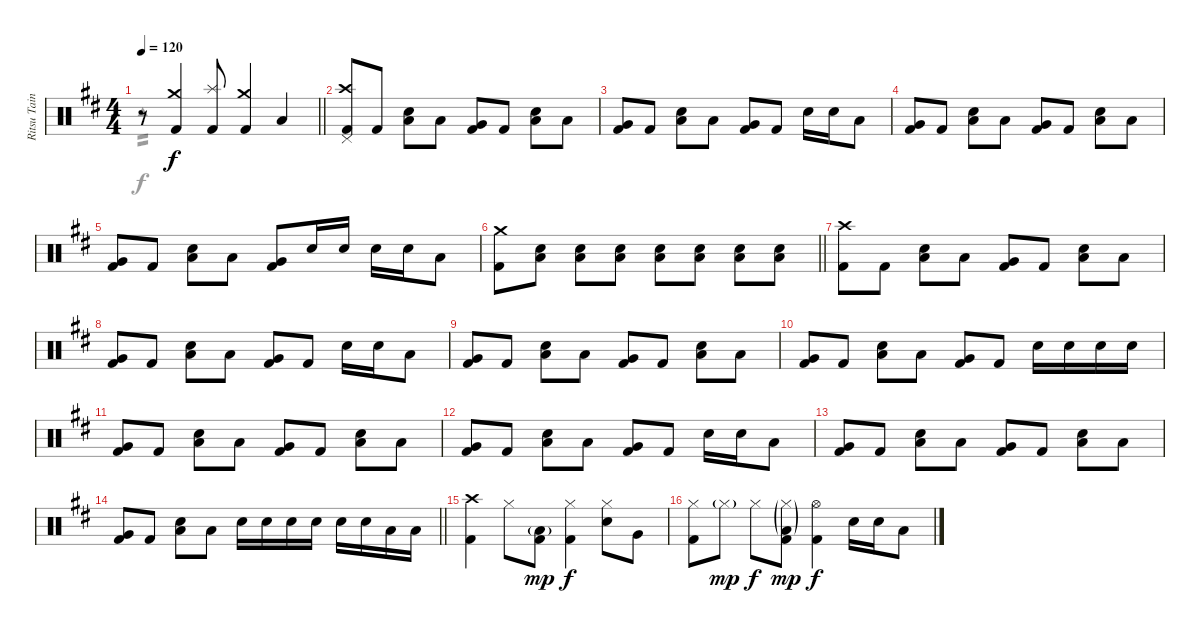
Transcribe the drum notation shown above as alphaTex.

\track ("Ritsu Tainaka" "Ritsu Tain") {instrument percussion}
\staff {score}
\articulation defaults
\voice
\ts (4 4)
\tempo 120
\clef neutral
\barLineRight lightlight
\ks d
r.8{dy f} ("Crash medium (hit)" "Kick (hit) 2").4 ("Splash (hit)" "Kick (hit) 2").8 ("Crash medium (hit)" "Kick (hit) 2").4 "Low Floor Tom (hit)".4 |
("Crash high (hit)" "Pedal Hi-Hat (hit)" "Kick (hit) 2").8 "Kick (hit) 2".8 ("Snare (hit) 2" "Low Floor Tom (hit)").8 "Low Tom (hit)".8 ("Very Low Tom (hit)" "Kick (hit) 2").8 "Kick (hit) 2".8 ("Snare (hit) 2" "Low Floor Tom (hit)").8 "Low Tom (hit)".8 |
("Very Low Tom (hit)" "Kick (hit) 2").8 "Kick (hit) 2".8 ("Snare (hit) 2" "Low Floor Tom (hit)").8 "Low Tom (hit)".8 ("Very Low Tom (hit)" "Kick (hit) 2").8 "Kick (hit) 2".8 "Snare (hit) 2".16 "Snare (hit) 2".16 "Low Tom (hit)".8 |
("Very Low Tom (hit)" "Kick (hit) 2").8 "Kick (hit) 2".8 ("Snare (hit) 2" "Low Floor Tom (hit)").8 "Low Tom (hit)".8 ("Very Low Tom (hit)" "Kick (hit) 2").8 "Kick (hit) 2".8 ("Snare (hit) 2" "Low Floor Tom (hit)").8 "Low Tom (hit)".8 |
("Very Low Tom (hit)" "Kick (hit) 2").8 "Kick (hit) 2".8 ("Snare (hit) 2" "Low Floor Tom (hit)").8 "Low Tom (hit)".8 ("Very Low Tom (hit)" "Kick (hit) 2").8 "Snare (hit) 2".16 "Snare (hit) 2".16 "Snare (hit) 2".16 "Snare (hit) 2".16 "Low Tom (hit)".8 |
\barLineRight lightlight
("Crash medium (hit)" "Kick (hit) 2").8 ("Snare (hit) 2" "Low Floor Tom (hit)").8 ("Snare (hit) 2" "Low Floor Tom (hit)").8 ("Snare (hit) 2" "Low Floor Tom (hit)").8 ("Snare (hit) 2" "Low Floor Tom (hit)").8 ("Snare (hit) 2" "Low Floor Tom (hit)").8 ("Snare (hit) 2" "Low Floor Tom (hit)").8 ("Snare (hit) 2" "Low Floor Tom (hit)").8 |
("Crash high (hit)" "Kick (hit) 2").8 "Kick (hit) 2".8 ("Snare (hit) 2" "Low Floor Tom (hit)").8 "Low Tom (hit)".8 ("Very Low Tom (hit)" "Kick (hit) 2").8 "Kick (hit) 2".8 ("Snare (hit) 2" "Low Floor Tom (hit)").8 "Low Tom (hit)".8 |
("Very Low Tom (hit)" "Kick (hit) 2").8 "Kick (hit) 2".8 ("Snare (hit) 2" "Low Floor Tom (hit)").8 "Low Tom (hit)".8 ("Very Low Tom (hit)" "Kick (hit) 2").8 "Kick (hit) 2".8 "Snare (hit) 2".16 "Snare (hit) 2".16 "Low Tom (hit)".8 |
("Very Low Tom (hit)" "Kick (hit) 2").8 "Kick (hit) 2".8 ("Snare (hit) 2" "Low Floor Tom (hit)").8 "Low Tom (hit)".8 ("Very Low Tom (hit)" "Kick (hit) 2").8 "Kick (hit) 2".8 ("Snare (hit) 2" "Low Floor Tom (hit)").8 "Low Tom (hit)".8 |
("Very Low Tom (hit)" "Kick (hit) 2").8 "Kick (hit) 2".8 ("Snare (hit) 2" "Low Floor Tom (hit)").8 "Low Tom (hit)".8 ("Very Low Tom (hit)" "Kick (hit) 2").8 "Kick (hit) 2".8 "Snare (hit) 2".16 "Snare (hit) 2".16 "Snare (hit) 2".16 "Snare (hit) 2".16 |
("Very Low Tom (hit)" "Kick (hit) 2").8 "Kick (hit) 2".8 ("Snare (hit) 2" "Low Floor Tom (hit)").8 "Low Tom (hit)".8 ("Very Low Tom (hit)" "Kick (hit) 2").8 "Kick (hit) 2".8 ("Snare (hit) 2" "Low Floor Tom (hit)").8 "Low Tom (hit)".8 |
("Very Low Tom (hit)" "Kick (hit) 2").8 "Kick (hit) 2".8 ("Snare (hit) 2" "Low Floor Tom (hit)").8 "Low Tom (hit)".8 ("Very Low Tom (hit)" "Kick (hit) 2").8 "Kick (hit) 2".8 "Snare (hit) 2".16 "Snare (hit) 2".16 "Low Tom (hit)".8 |
("Very Low Tom (hit)" "Kick (hit) 2").8 "Kick (hit) 2".8 ("Snare (hit) 2" "Low Floor Tom (hit)").8 "Low Tom (hit)".8 ("Very Low Tom (hit)" "Kick (hit) 2").8 "Kick (hit) 2".8 ("Snare (hit) 2" "Low Floor Tom (hit)").8 "Low Tom (hit)".8 |
\barLineRight lightlight
("Very Low Tom (hit)" "Kick (hit) 2").8 "Kick (hit) 2".8 ("Snare (hit) 2" "Low Floor Tom (hit)").8 "Low Tom (hit)".8 "Snare (hit) 2".16 "Snare (hit) 2".16 "Snare (hit) 2".16 "Snare (hit) 2".16 "Snare (hit) 2".16 "Snare (hit) 2".16 "Low Tom (hit)".16 "Low Tom (hit)".16 |
("Crash high (hit)" "Kick (hit) 2").4 "Hi-Hat (closed)".8 ("Low Floor Tom (hit)"{g} "Kick (hit) 2").8{dy mp} ("Hi-Hat (closed)" "Kick (hit) 2").4{dy f} ("Hi-Hat (closed)" "Snare (hit) 2").8 "Very Low Tom (hit)".8 |
("Hi-Hat (closed)" "Kick (hit) 2").8 "Hi-Hat (closed)"{g}.8{dy mp} "Hi-Hat (closed)".8{dy f} ("Hi-Hat (closed)"{g} "Low Floor Tom (hit)"{g} "Kick (hit) 2").8{dy mp} ("Hi-Hat (open)" "Kick (hit) 2").4{dy f} "Snare (hit) 2".16 "Snare (hit) 2".16 "Low Tom (hit)".8
\voice
\clef neutral
\ottava regular
\simile none
\barLineRight lightlight
\ks d "Tambourine (hit)".1{tp 2 dy f}
|
|
|
|
|
\barLineRight lightlight
|
|
|
|
|
|
|
|
\barLineRight lightlight
|
|
